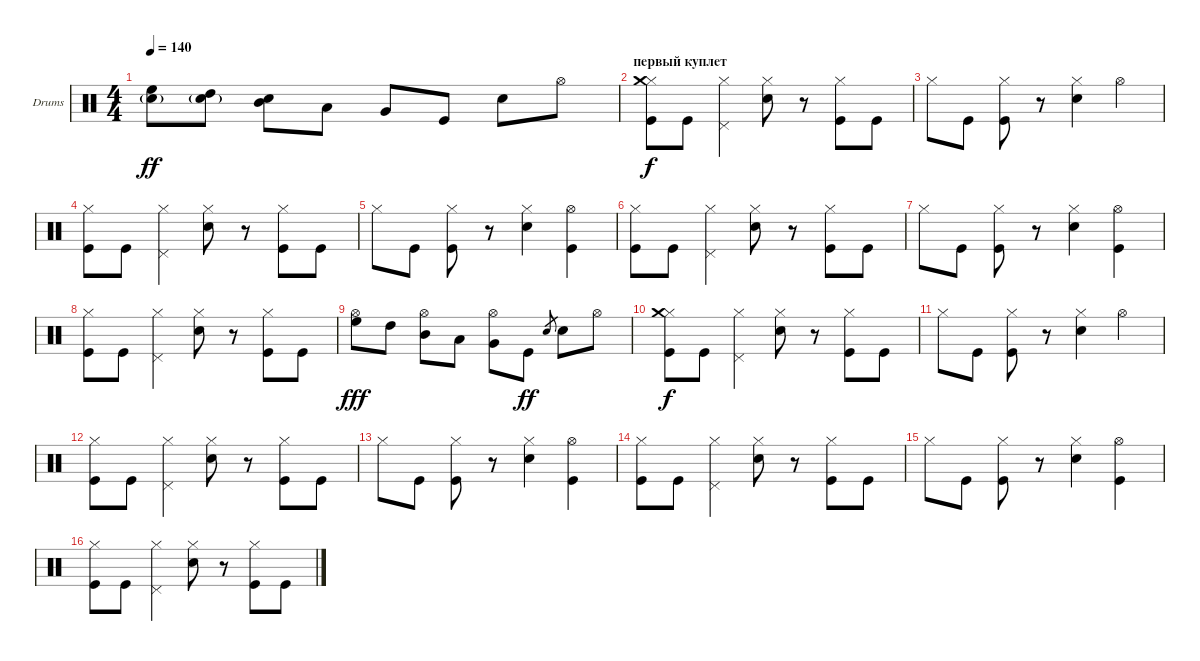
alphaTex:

\defaultSystemsLayout 4
\bracketExtendMode groupsimilarinstruments
\firstSystemTrackNameOrientation horizontal
\otherSystemsTrackNameOrientation horizontal
\track ("Drumkit" "Drums") {instrument percussion}
\staff {score}
\articulation defaults
\ts (4 4)
\tempo 140
\clef neutral
\scale
0.333333
\ks c
("High Floor Tom (hit)" "Snare (hit) 2"{g}).8{dy ff} ("High Tom (hit)" "Snare (hit) 2"{g}).8 ("Mid Tom (hit)" "Snare (hit) 2").8 "Low Tom (hit)".8 "Very Low Tom (hit)".8 "Kick (hit)".8 "Snare (hit) 2".8 "Hi-Hat (open)".8 |
\section ("" "первый куплет")
\scale
0.333333 ("Kick (hit)" "Hi-Hat (closed)" "Crash medium (hit)").8{dy f} "Kick (hit)".8 ("Pedal Hi-Hat (hit)" "Hi-Hat (closed)").4 ("Snare (hit) 2" "Hi-Hat (closed)").8 r.8 ("Kick (hit)" "Hi-Hat (closed)").8 "Kick (hit)".8 |
\scale
0.333333 "Hi-Hat (closed)".8 "Kick (hit)".8 ("Kick (hit)" "Hi-Hat (closed)").8 r.8 ("Snare (hit) 2" "Hi-Hat (closed)").4 "Hi-Hat (open)".4 |
\scale
0.333333 ("Kick (hit)" "Hi-Hat (closed)").8 "Kick (hit)".8 ("Pedal Hi-Hat (hit)" "Hi-Hat (closed)").4 ("Snare (hit) 2" "Hi-Hat (closed)").8 r.8 ("Kick (hit)" "Hi-Hat (closed)").8 "Kick (hit)".8 |
\scale
0.333333 "Hi-Hat (closed)".8 "Kick (hit)".8 ("Kick (hit)" "Hi-Hat (closed)").8 r.8 ("Snare (hit) 2" "Hi-Hat (closed)").4 ("Hi-Hat (open)" "Kick (hit)").4 |
\scale
0.333333 ("Kick (hit)" "Hi-Hat (closed)").8 "Kick (hit)".8 ("Pedal Hi-Hat (hit)" "Hi-Hat (closed)").4 ("Snare (hit) 2" "Hi-Hat (closed)").8 r.8 ("Kick (hit)" "Hi-Hat (closed)").8 "Kick (hit)".8 |
\scale
0.333333 "Hi-Hat (closed)".8 "Kick (hit)".8 ("Kick (hit)" "Hi-Hat (closed)").8 r.8 ("Snare (hit) 2" "Hi-Hat (closed)").4 ("Hi-Hat (open)" "Kick (hit)").4 |
\scale
0.333333 ("Kick (hit)" "Hi-Hat (closed)").8 "Kick (hit)".8 ("Pedal Hi-Hat (hit)" "Hi-Hat (closed)").4 ("Snare (hit) 2" "Hi-Hat (closed)").8 r.8 ("Kick (hit)" "Hi-Hat (closed)").8 "Kick (hit)".8 |
\scale
0.333333 ("High Floor Tom (hit)" "Hi-Hat (open)").8{dy fff} "High Tom (hit)".8 ("Mid Tom (hit)" "Hi-Hat (open)").8 "Low Tom (hit)".8 ("Very Low Tom (hit)" "Hi-Hat (open)").8 "Kick (hit)".8{dy ff} "Snare (hit) 2".8{gr} "Snare (hit) 2".8 "Hi-Hat (open)".8 |
\scale
0.333333 ("Kick (hit)" "Hi-Hat (closed)" "Crash medium (hit)").8{dy f} "Kick (hit)".8 ("Pedal Hi-Hat (hit)" "Hi-Hat (closed)").4 ("Snare (hit) 2" "Hi-Hat (closed)").8 r.8 ("Kick (hit)" "Hi-Hat (closed)").8 "Kick (hit)".8 |
\scale
0.333333 "Hi-Hat (closed)".8 "Kick (hit)".8 ("Kick (hit)" "Hi-Hat (closed)").8 r.8 ("Snare (hit) 2" "Hi-Hat (closed)").4 "Hi-Hat (open)".4 |
\scale
0.333333 ("Kick (hit)" "Hi-Hat (closed)").8 "Kick (hit)".8 ("Pedal Hi-Hat (hit)" "Hi-Hat (closed)").4 ("Snare (hit) 2" "Hi-Hat (closed)").8 r.8 ("Kick (hit)" "Hi-Hat (closed)").8 "Kick (hit)".8 |
\scale
0.333333 "Hi-Hat (closed)".8 "Kick (hit)".8 ("Kick (hit)" "Hi-Hat (closed)").8 r.8 ("Snare (hit) 2" "Hi-Hat (closed)").4 ("Hi-Hat (open)" "Kick (hit)").4 |
\scale
0.333333 ("Kick (hit)" "Hi-Hat (closed)").8 "Kick (hit)".8 ("Pedal Hi-Hat (hit)" "Hi-Hat (closed)").4 ("Snare (hit) 2" "Hi-Hat (closed)").8 r.8 ("Kick (hit)" "Hi-Hat (closed)").8 "Kick (hit)".8 |
\scale
0.333333 "Hi-Hat (closed)".8 "Kick (hit)".8 ("Kick (hit)" "Hi-Hat (closed)").8 r.8 ("Snare (hit) 2" "Hi-Hat (closed)").4 ("Hi-Hat (open)" "Kick (hit)").4 |
\scale
0.333333 ("Kick (hit)" "Hi-Hat (closed)").8 "Kick (hit)".8 ("Pedal Hi-Hat (hit)" "Hi-Hat (closed)").4 ("Snare (hit) 2" "Hi-Hat (closed)").8 r.8 ("Kick (hit)" "Hi-Hat (closed)").8 "Kick (hit)".8
